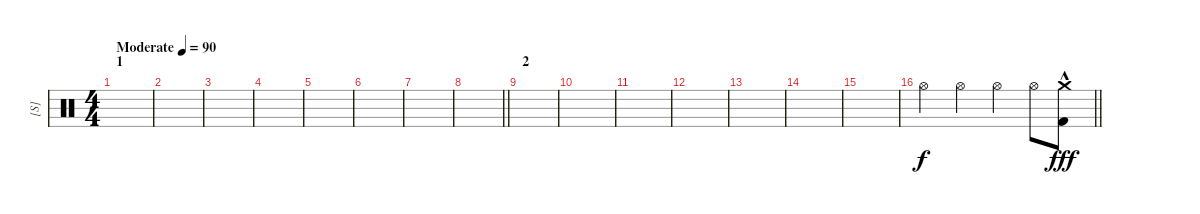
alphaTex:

\track ("[S]" "[S]") {instrument percussion}
\staff {score}
\articulation defaults
\ts (4 4)
\section ("" "1")
\tempo (90 "Moderate")
\clef neutral
\ks c
|
|
|
|
|
|
|
\barLineRight lightlight
|
\section ("" "2")
|
|
|
|
|
|
|
\barLineRight lightlight "Hi-Hat (open)".4 "Hi-Hat (open)".4 "Hi-Hat (open)".4 "Hi-Hat (open)".8
("Crash medium (hit)" "Kick (hit) 2"{hac}).8{dy fff}
